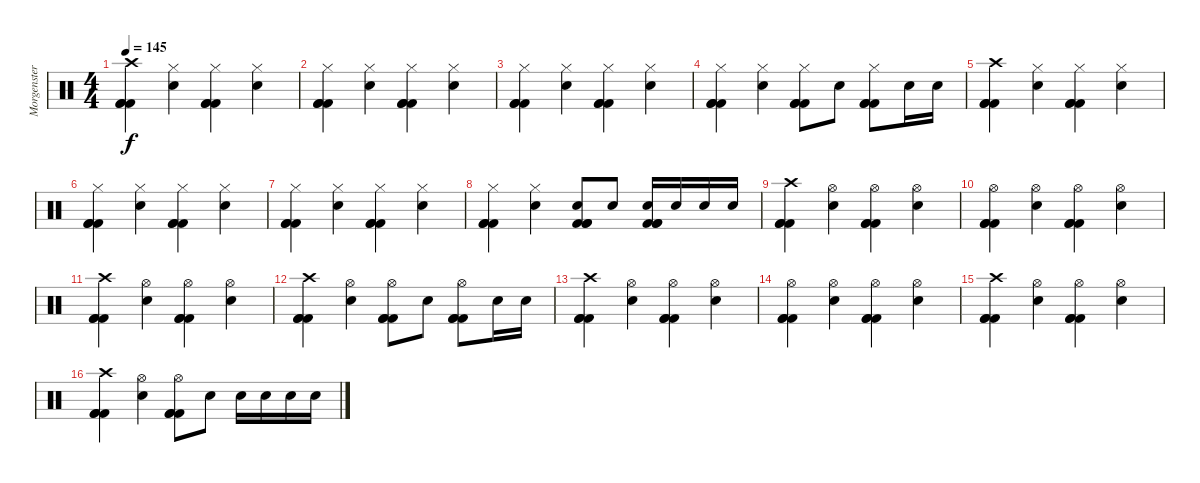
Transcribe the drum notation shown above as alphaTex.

\track ("Morgenstern (Schlagzeug)" "Morgenster") {instrument percussion}
\staff {score}
\articulation defaults
\ts (4 4)
\tempo 145
\clef neutral
\ks c
("Crash high (hit)" "Kick (hit) 2" "Kick (hit) 2" "Kick (hit) 2").4{dy f} ("Hi-Hat (closed)" "Snare (hit) 2").4 ("Hi-Hat (closed)" "Kick (hit) 2" "Kick (hit) 2" "Kick (hit) 2").4 ("Hi-Hat (closed)" "Snare (hit) 2").4 |
("Hi-Hat (closed)" "Kick (hit) 2" "Kick (hit) 2" "Kick (hit) 2").4 ("Hi-Hat (closed)" "Snare (hit) 2").4 ("Hi-Hat (closed)" "Kick (hit) 2" "Kick (hit) 2" "Kick (hit) 2").4 ("Hi-Hat (closed)" "Snare (hit) 2").4 |
("Hi-Hat (closed)" "Kick (hit) 2" "Kick (hit) 2" "Kick (hit) 2").4 ("Hi-Hat (closed)" "Snare (hit) 2").4 ("Hi-Hat (closed)" "Kick (hit) 2" "Kick (hit) 2" "Kick (hit) 2").4 ("Hi-Hat (closed)" "Snare (hit) 2").4 |
("Hi-Hat (closed)" "Kick (hit) 2" "Kick (hit) 2" "Kick (hit) 2").4 ("Hi-Hat (closed)" "Snare (hit) 2").4 ("Hi-Hat (closed)" "Kick (hit) 2" "Kick (hit) 2" "Kick (hit) 2").8 "Snare (hit) 2".8 ("Hi-Hat (closed)" "Kick (hit) 2" "Kick (hit) 2" "Kick (hit) 2").8 "Snare (hit) 2".16 "Snare (hit) 2".16 |
("Crash high (hit)" "Kick (hit) 2" "Kick (hit) 2" "Kick (hit) 2").4 ("Hi-Hat (closed)" "Snare (hit) 2").4 ("Hi-Hat (closed)" "Kick (hit) 2" "Kick (hit) 2" "Kick (hit) 2").4 ("Hi-Hat (closed)" "Snare (hit) 2").4 |
("Hi-Hat (closed)" "Kick (hit) 2" "Kick (hit) 2" "Kick (hit) 2").4 ("Hi-Hat (closed)" "Snare (hit) 2").4 ("Hi-Hat (closed)" "Kick (hit) 2" "Kick (hit) 2" "Kick (hit) 2").4 ("Hi-Hat (closed)" "Snare (hit) 2").4 |
("Hi-Hat (closed)" "Kick (hit) 2" "Kick (hit) 2" "Kick (hit) 2").4 ("Hi-Hat (closed)" "Snare (hit) 2").4 ("Hi-Hat (closed)" "Kick (hit) 2" "Kick (hit) 2" "Kick (hit) 2").4 ("Hi-Hat (closed)" "Snare (hit) 2").4 |
("Hi-Hat (closed)" "Kick (hit) 2" "Kick (hit) 2" "Kick (hit) 2").4 ("Hi-Hat (closed)" "Snare (hit) 2").4 ("Snare (hit) 2" "Kick (hit) 2" "Kick (hit) 2" "Kick (hit) 2").8 "Snare (hit) 2".8 ("Snare (hit) 2" "Kick (hit) 2" "Kick (hit) 2" "Kick (hit) 2").16 "Snare (hit) 2".16 "Snare (hit) 2".16 "Snare (hit) 2".16 |
("Crash high (hit)" "Kick (hit) 2" "Kick (hit) 2" "Kick (hit) 2").4 ("Hi-Hat (open)" "Snare (hit) 2").4 ("Hi-Hat (open)" "Kick (hit) 2" "Kick (hit) 2" "Kick (hit) 2").4 ("Hi-Hat (open)" "Snare (hit) 2").4 |
("Hi-Hat (open)" "Kick (hit) 2" "Kick (hit) 2" "Kick (hit) 2").4 ("Hi-Hat (open)" "Snare (hit) 2").4 ("Hi-Hat (open)" "Kick (hit) 2" "Kick (hit) 2" "Kick (hit) 2").4 ("Hi-Hat (open)" "Snare (hit) 2").4 |
("Crash high (hit)" "Kick (hit) 2" "Kick (hit) 2" "Kick (hit) 2").4 ("Hi-Hat (open)" "Snare (hit) 2").4 ("Hi-Hat (open)" "Kick (hit) 2" "Kick (hit) 2" "Kick (hit) 2").4 ("Hi-Hat (open)" "Snare (hit) 2").4 |
("Crash high (hit)" "Kick (hit) 2" "Kick (hit) 2" "Kick (hit) 2").4 ("Hi-Hat (open)" "Snare (hit) 2").4 ("Hi-Hat (open)" "Kick (hit) 2" "Kick (hit) 2" "Kick (hit) 2").8 "Snare (hit) 2".8 ("Hi-Hat (open)" "Kick (hit) 2" "Kick (hit) 2" "Kick (hit) 2").8 "Snare (hit) 2".16 "Snare (hit) 2".16 |
("Crash high (hit)" "Kick (hit) 2" "Kick (hit) 2" "Kick (hit) 2").4 ("Hi-Hat (open)" "Snare (hit) 2").4 ("Hi-Hat (open)" "Kick (hit) 2" "Kick (hit) 2" "Kick (hit) 2").4 ("Hi-Hat (open)" "Snare (hit) 2").4 |
("Hi-Hat (open)" "Kick (hit) 2" "Kick (hit) 2" "Kick (hit) 2").4 ("Hi-Hat (open)" "Snare (hit) 2").4 ("Hi-Hat (open)" "Kick (hit) 2" "Kick (hit) 2" "Kick (hit) 2").4 ("Hi-Hat (open)" "Snare (hit) 2").4 |
("Crash high (hit)" "Kick (hit) 2" "Kick (hit) 2" "Kick (hit) 2").4 ("Hi-Hat (open)" "Snare (hit) 2").4 ("Hi-Hat (open)" "Kick (hit) 2" "Kick (hit) 2" "Kick (hit) 2").4 ("Hi-Hat (open)" "Snare (hit) 2").4 |
("Crash high (hit)" "Kick (hit) 2" "Kick (hit) 2" "Kick (hit) 2").4 ("Hi-Hat (open)" "Snare (hit) 2").4 ("Hi-Hat (open)" "Kick (hit) 2" "Kick (hit) 2" "Kick (hit) 2").8 "Snare (hit) 2".8 "Snare (hit) 2".16 "Snare (hit) 2".16 "Snare (hit) 2".16 "Snare (hit) 2".16
